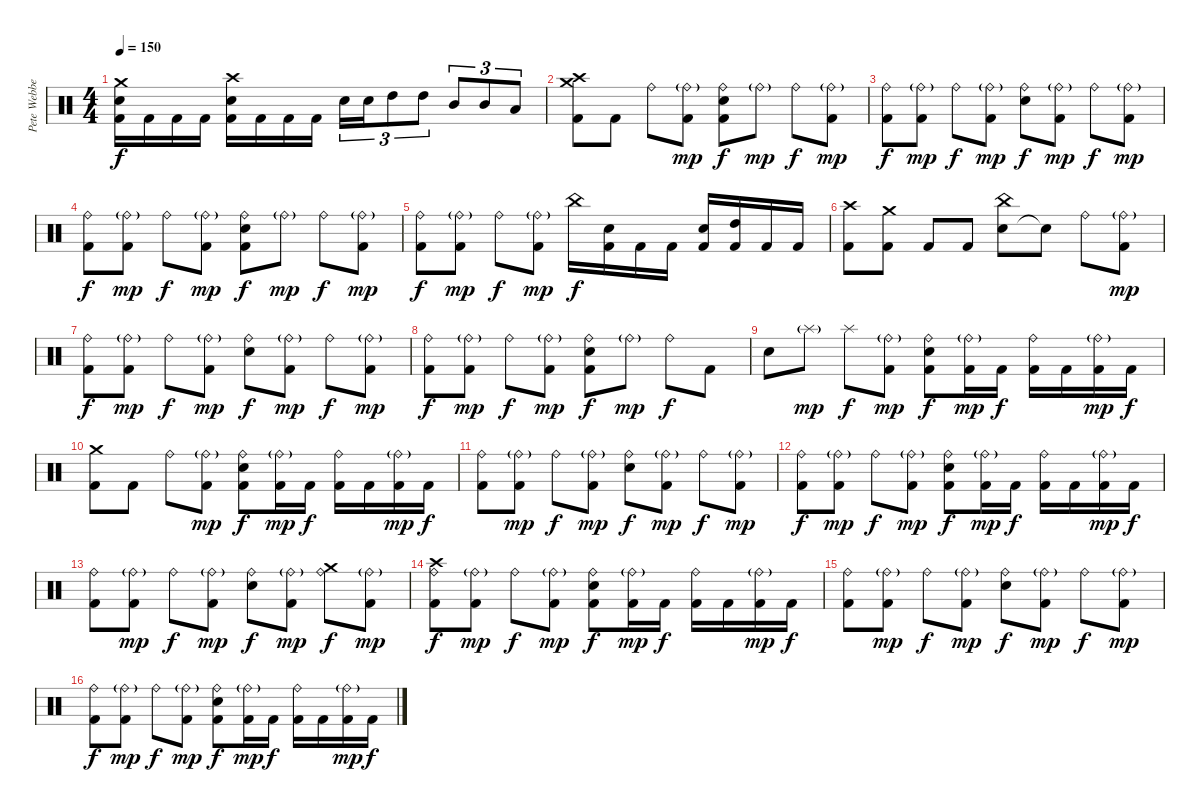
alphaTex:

\track ("Pete Webber" "Pete Webbe") {instrument percussion}
\staff {score}
\articulation defaults
\ts (4 4)
\tempo 150
\clef neutral
\ks c
("Electric Snare (hit)" "Kick (hit) 2" "Crash medium (hit)").16{dy f} "Kick (hit) 2".16 "Kick (hit) 2".16 "Kick (hit) 2".16 ("Electric Snare (hit)" "Kick (hit) 2" "Crash high (hit)").16 "Kick (hit) 2".16 "Kick (hit) 2".16 "Kick (hit) 2".16 "Electric Snare (hit)".16{tu (3 2)} "Electric Snare (hit)".16{tu (3 2)} "High Tom (hit)".8{tu (3 2)} "High Tom (hit)".8{tu (3 2)} "Mid Tom (hit)".8{tu (3 2)} "Mid Tom (hit)".8{tu (3 2)} "Low Floor Tom (hit)".8{tu (3 2)} |
("Kick (hit) 2" "Crash high (hit)" "Crash medium (hit)").8 "Kick (hit) 2".8 "Ride (bell)".8 ("Ride (bell)"{g} "Kick (hit) 2").8{dy mp} ("Ride (bell)" "Electric Snare (hit)" "Kick (hit) 2").8{dy f} "Ride (bell)"{g}.8{dy mp} "Ride (bell)".8{dy f} ("Ride (bell)"{g} "Kick (hit) 2").8{dy mp} |
("Ride (bell)" "Kick (hit) 2").8{dy f} ("Ride (bell)"{g} "Kick (hit) 2").8{dy mp} "Ride (bell)".8{dy f} ("Ride (bell)"{g} "Kick (hit) 2").8{dy mp} ("Ride (bell)" "Electric Snare (hit)").8{dy f} ("Ride (bell)"{g} "Kick (hit) 2").8{dy mp} "Ride (bell)".8{dy f} ("Ride (bell)"{g} "Kick (hit) 2").8{dy mp} |
("Ride (bell)" "Kick (hit) 2").8{dy f} ("Ride (bell)"{g} "Kick (hit) 2").8{dy mp} "Ride (bell)".8{dy f} ("Ride (bell)"{g} "Kick (hit) 2").8{dy mp} ("Ride (bell)" "Electric Snare (hit)" "Kick (hit) 2").8{dy f} "Ride (bell)"{g}.8{dy mp} "Ride (bell)".8{dy f} ("Ride (bell)"{g} "Kick (hit) 2").8{dy mp} |
("Ride (bell)" "Kick (hit) 2").8{dy f} ("Ride (bell)"{g} "Kick (hit) 2").8{dy mp} "Ride (bell)".8{dy f} ("Ride (bell)"{g} "Kick (hit) 2").8{dy mp} "China (hit)".16{dy f} ("Electric Snare (hit)" "Kick (hit) 2").16 "Kick (hit) 2".16 "Kick (hit) 2".16 ("Electric Snare (hit)" "Kick (hit) 2").16 ("Kick (hit) 2" "High Tom (hit)").16 "Kick (hit) 2".16 "Kick (hit) 2".16 |
("Kick (hit) 2" "Crash high (hit)").8 ("Kick (hit) 2" "Crash medium (hit)").8 "Kick (hit) 2".8 "Kick (hit) 2".8 ("Electric Snare (hit)" "China (hit)").8 "Snare (hit)"{t}.8 "Ride (bell)".8 ("Ride (bell)"{g} "Kick (hit) 2").8{dy mp} |
("Ride (bell)" "Kick (hit) 2").8{dy f} ("Ride (bell)"{g} "Kick (hit) 2").8{dy mp} "Ride (bell)".8{dy f} ("Ride (bell)"{g} "Kick (hit) 2").8{dy mp} ("Ride (bell)" "Electric Snare (hit)").8{dy f} ("Ride (bell)"{g} "Kick (hit) 2").8{dy mp} "Ride (bell)".8{dy f} ("Ride (bell)"{g} "Kick (hit) 2").8{dy mp} |
("Ride (bell)" "Kick (hit) 2").8{dy f} ("Ride (bell)"{g} "Kick (hit) 2").8{dy mp} "Ride (bell)".8{dy f} ("Ride (bell)"{g} "Kick (hit) 2").8{dy mp} ("Ride (bell)" "Electric Snare (hit)" "Kick (hit) 2").8{dy f} "Ride (bell)"{g}.8{dy mp} "Ride (bell)".8{dy f} "Kick (hit) 2".8 |
"Electric Snare (hit)".8 "Splash (hit)"{g}.8{dy mp} "Splash (hit)".8{dy f} ("Ride (bell)"{g} "Kick (hit) 2").8{dy mp} ("Ride (bell)" "Electric Snare (hit)" "Kick (hit) 2").8{dy f} ("Ride (bell)"{g} "Kick (hit) 2").16{dy mp} "Kick (hit) 2".16{dy f} ("Ride (bell)" "Kick (hit) 2").16 "Kick (hit) 2".16 ("Ride (bell)"{g} "Kick (hit) 2").16{dy mp} "Kick (hit) 2".16{dy f} |
("Kick (hit) 2" "Crash medium (hit)").8 "Kick (hit) 2".8 "Ride (bell)".8 ("Ride (bell)"{g} "Kick (hit) 2").8{dy mp} ("Ride (bell)" "Electric Snare (hit)" "Kick (hit) 2").8{dy f} ("Ride (bell)"{g} "Kick (hit) 2").16{dy mp} "Kick (hit) 2".16{dy f} ("Ride (bell)" "Kick (hit) 2").16 "Kick (hit) 2".16 ("Ride (bell)"{g} "Kick (hit) 2").16{dy mp} "Kick (hit) 2".16{dy f} |
("Ride (bell)" "Kick (hit) 2").8 ("Ride (bell)"{g} "Kick (hit) 2").8{dy mp} "Ride (bell)".8{dy f} ("Ride (bell)"{g} "Kick (hit) 2").8{dy mp} ("Ride (bell)" "Electric Snare (hit)").8{dy f} ("Ride (bell)"{g} "Kick (hit) 2").8{dy mp} "Ride (bell)".8{dy f} ("Ride (bell)"{g} "Kick (hit) 2").8{dy mp} |
("Ride (bell)" "Kick (hit) 2").8{dy f} ("Ride (bell)"{g} "Kick (hit) 2").8{dy mp} "Ride (bell)".8{dy f} ("Ride (bell)"{g} "Kick (hit) 2").8{dy mp} ("Ride (bell)" "Electric Snare (hit)" "Kick (hit) 2").8{dy f} ("Ride (bell)"{g} "Kick (hit) 2").16{dy mp} "Kick (hit) 2".16{dy f} ("Ride (bell)" "Kick (hit) 2").16 "Kick (hit) 2".16 ("Ride (bell)"{g} "Kick (hit) 2").16{dy mp} "Kick (hit) 2".16{dy f} |
("Ride (bell)" "Kick (hit) 2").8 ("Ride (bell)"{g} "Kick (hit) 2").8{dy mp} "Ride (bell)".8{dy f} ("Ride (bell)"{g} "Kick (hit) 2").8{dy mp} ("Ride (bell)" "Electric Snare (hit)").8{dy f} ("Ride (bell)"{g} "Kick (hit) 2").8{dy mp} ("Ride (bell)" "Crash medium (hit)").8{dy f} ("Ride (bell)"{g} "Kick (hit) 2").8{dy mp} |
("Ride (bell)" "Kick (hit) 2" "Crash high (hit)").8{dy f} ("Ride (bell)"{g} "Kick (hit) 2").8{dy mp} "Ride (bell)".8{dy f} ("Ride (bell)"{g} "Kick (hit) 2").8{dy mp} ("Ride (bell)" "Electric Snare (hit)" "Kick (hit) 2").8{dy f} ("Ride (bell)"{g} "Kick (hit) 2").16{dy mp} "Kick (hit) 2".16{dy f} ("Ride (bell)" "Kick (hit) 2").16 "Kick (hit) 2".16 ("Ride (bell)"{g} "Kick (hit) 2").16{dy mp} "Kick (hit) 2".16{dy f} |
("Ride (bell)" "Kick (hit) 2").8 ("Ride (bell)"{g} "Kick (hit) 2").8{dy mp} "Ride (bell)".8{dy f} ("Ride (bell)"{g} "Kick (hit) 2").8{dy mp} ("Ride (bell)" "Electric Snare (hit)").8{dy f} ("Ride (bell)"{g} "Kick (hit) 2").8{dy mp} "Ride (bell)".8{dy f} ("Ride (bell)"{g} "Kick (hit) 2").8{dy mp} |
("Ride (bell)" "Kick (hit) 2").8{dy f} ("Ride (bell)"{g} "Kick (hit) 2").8{dy mp} "Ride (bell)".8{dy f} ("Ride (bell)"{g} "Kick (hit) 2").8{dy mp} ("Ride (bell)" "Electric Snare (hit)" "Kick (hit) 2").8{dy f} ("Ride (bell)"{g} "Kick (hit) 2").16{dy mp} "Kick (hit) 2".16{dy f} ("Ride (bell)" "Kick (hit) 2").16 "Kick (hit) 2".16 ("Ride (bell)"{g} "Kick (hit) 2").16{dy mp} "Kick (hit) 2".16{dy f}
